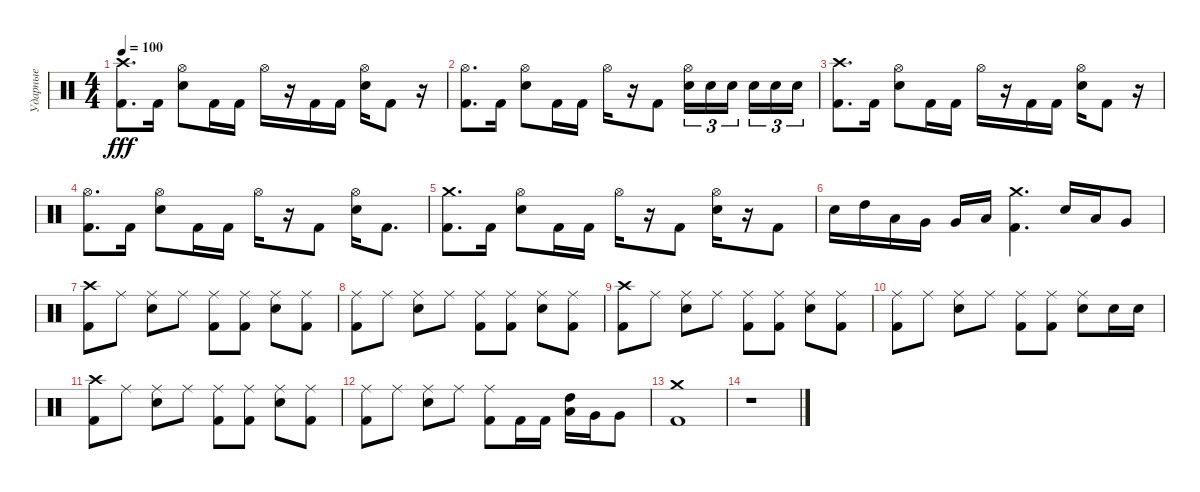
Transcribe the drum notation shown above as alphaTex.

\track ("Ударные" "Ударные") {instrument percussion}
\staff {score}
\articulation defaults
\ts (4 4)
\tempo 100
\clef neutral
\ks c
("Kick (hit) 2" "Crash high (hit)").8{d dy fff} "Kick (hit) 2".16 ("Electric Snare (hit)" "Hi-Hat (open)").8 "Kick (hit) 2".16 "Kick (hit) 2".16 "Hi-Hat (open)".16 r.16 "Kick (hit) 2".16 "Kick (hit) 2".16 ("Electric Snare (hit)" "Hi-Hat (open)").16 "Kick (hit) 2".8 r.16 |
("Kick (hit) 2" "Hi-Hat (open)").8{d} "Kick (hit) 2".16 ("Electric Snare (hit)" "Hi-Hat (open)").8 "Kick (hit) 2".16 "Kick (hit) 2".16 "Hi-Hat (open)".16 r.16 "Kick (hit) 2".8 ("Electric Snare (hit)" "Hi-Hat (open)").16{tu (3 2)} "Electric Snare (hit)".16{tu (3 2)} "Electric Snare (hit)".16{tu (3 2) beam splitsecondary} "Electric Snare (hit)".16{tu (3 2)} "Electric Snare (hit)".16{tu (3 2)} "Electric Snare (hit)".16{tu (3 2)} |
("Kick (hit) 2" "Crash high (hit)").8{d} "Kick (hit) 2".16 ("Electric Snare (hit)" "Hi-Hat (open)").8 "Kick (hit) 2".16 "Kick (hit) 2".16 "Hi-Hat (open)".16 r.16 "Kick (hit) 2".16 "Kick (hit) 2".16 ("Electric Snare (hit)" "Hi-Hat (open)").16 "Kick (hit) 2".8 r.16 |
("Kick (hit) 2" "Hi-Hat (open)").8{d} "Kick (hit) 2".16 ("Electric Snare (hit)" "Hi-Hat (open)").8 "Kick (hit) 2".16 "Kick (hit) 2".16 "Hi-Hat (open)".16 r.16 "Kick (hit) 2".8 ("Electric Snare (hit)" "Hi-Hat (open)").16 "Kick (hit) 2".8{d} |
("Kick (hit) 2" "Crash medium (hit)").8{d} "Kick (hit) 2".16 ("Electric Snare (hit)" "Hi-Hat (open)").8 "Kick (hit) 2".16 "Kick (hit) 2".16 "Hi-Hat (open)".16 r.16 "Kick (hit) 2".8 ("Electric Snare (hit)" "Hi-Hat (open)").16 r.16 "Kick (hit) 2".8 |
"Electric Snare (hit)".16 "High Tom (hit)".16 "Low Tom (hit)".16 "Very Low Tom (hit)".16 "Very Low Tom (hit)".16 "Low Floor Tom (hit)".16 ("Kick (hit) 2" "Crash medium (hit)").4{d} "Electric Snare (hit)".16 "Low Tom (hit)".16 "Very Low Tom (hit)".8 |
("Kick (hit) 2" "Crash high (hit)").8 "Ride (middle)".8 ("Electric Snare (hit)" "Ride (middle)").8 "Ride (middle)".8 ("Kick (hit) 2" "Ride (middle)").8 ("Kick (hit) 2" "Ride (middle)").8 ("Electric Snare (hit)" "Ride (middle)").8 ("Kick (hit) 2" "Ride (middle)").8 |
("Kick (hit) 2" "Ride (middle)").8 "Ride (middle)".8 ("Electric Snare (hit)" "Ride (middle)").8 "Ride (middle)".8 ("Kick (hit) 2" "Ride (middle)").8 ("Kick (hit) 2" "Ride (middle)").8 ("Electric Snare (hit)" "Ride (middle)").8 ("Ride (middle)" "Kick (hit) 2").8 |
("Kick (hit) 2" "Crash high (hit)").8 "Ride (middle)".8 ("Electric Snare (hit)" "Ride (middle)").8 "Ride (middle)".8 ("Kick (hit) 2" "Ride (middle)").8 ("Kick (hit) 2" "Ride (middle)").8 ("Electric Snare (hit)" "Ride (middle)").8 ("Ride (middle)" "Kick (hit) 2").8 |
("Kick (hit) 2" "Ride (middle)").8 "Ride (middle)".8 ("Electric Snare (hit)" "Ride (middle)").8 "Ride (middle)".8 ("Kick (hit) 2" "Ride (middle)").8 ("Kick (hit) 2" "Ride (middle)").8 ("Electric Snare (hit)" "Ride (middle)").8 "Electric Snare (hit)".16 "Electric Snare (hit)".16 |
("Kick (hit) 2" "Crash high (hit)").8 "Ride (middle)".8 ("Electric Snare (hit)" "Ride (middle)").8 "Ride (middle)".8 ("Kick (hit) 2" "Ride (middle)").8 ("Kick (hit) 2" "Ride (middle)").8 ("Electric Snare (hit)" "Ride (middle)").8 ("Ride (middle)" "Kick (hit) 2").8 |
("Kick (hit) 2" "Ride (middle)").8 "Ride (middle)".8 ("Electric Snare (hit)" "Ride (middle)").8 "Ride (middle)".8 ("Kick (hit) 2" "Ride (middle)").8 "Kick (hit) 2".16 "Kick (hit) 2".16 ("High Tom (hit)" "Low Tom (hit)").16 "Very Low Tom (hit)".16 "Very Low Tom (hit)".8 |
("Kick (hit) 2" "Crash medium (hit)").1 |
r.1
